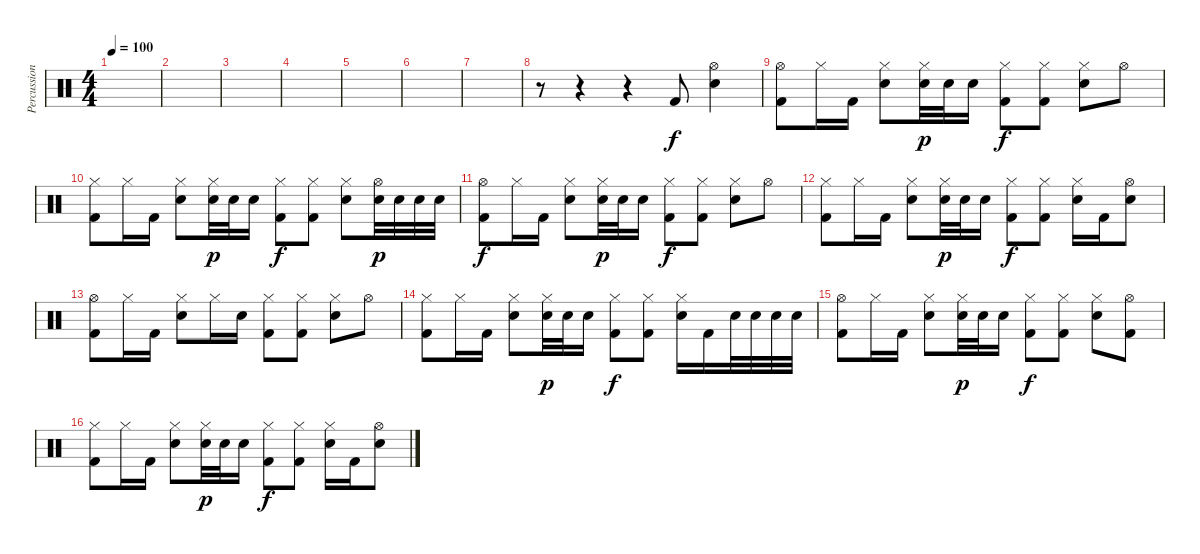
\track ("Percussions" "Percussion") {instrument percussion}
\staff {score}
\articulation defaults
\ts (4 4)
\tempo 100
\clef neutral
\ks c
|
|
|
|
|
|
|
r.8 r.4 r.4 "Kick (hit) 2".8 ("Hi-Hat (open)" "Snare (hit) 2").4 |
("Hi-Hat (open)" "Kick (hit) 2").8 "Hi-Hat (closed)".16 "Kick (hit) 2".16 ("Hi-Hat (closed)" "Snare (hit) 2").8 ("Hi-Hat (closed)" "Snare (hit) 2").32{dy p} "Snare (hit) 2".32 "Snare (hit) 2".16 ("Hi-Hat (closed)" "Kick (hit) 2").8{dy f} ("Hi-Hat (closed)" "Kick (hit) 2").8 ("Hi-Hat (closed)" "Snare (hit) 2").8 "Hi-Hat (open)".8 |
("Hi-Hat (closed)" "Kick (hit) 2").8 "Hi-Hat (closed)".16 "Kick (hit) 2".16 ("Hi-Hat (closed)" "Snare (hit) 2").8 ("Hi-Hat (closed)" "Snare (hit) 2").32{dy p} "Snare (hit) 2".32 "Snare (hit) 2".16 ("Hi-Hat (closed)" "Kick (hit) 2").8{dy f} ("Hi-Hat (closed)" "Kick (hit) 2").8 ("Hi-Hat (closed)" "Snare (hit) 2").8 ("Hi-Hat (open)" "Snare (hit) 2").32{dy p} "Snare (hit) 2".32 "Snare (hit) 2".32 "Snare (hit) 2".32 |
("Hi-Hat (open)" "Kick (hit) 2").8{dy f} "Hi-Hat (closed)".16 "Kick (hit) 2".16 ("Hi-Hat (closed)" "Snare (hit) 2").8 ("Hi-Hat (closed)" "Snare (hit) 2").32{dy p} "Snare (hit) 2".32 "Snare (hit) 2".16 ("Hi-Hat (closed)" "Kick (hit) 2").8{dy f} ("Hi-Hat (closed)" "Kick (hit) 2").8 ("Hi-Hat (closed)" "Snare (hit) 2").8 "Hi-Hat (open)".8 |
("Hi-Hat (closed)" "Kick (hit) 2").8 "Hi-Hat (closed)".16 "Kick (hit) 2".16 ("Hi-Hat (closed)" "Snare (hit) 2").8 ("Hi-Hat (closed)" "Snare (hit) 2").32{dy p} "Snare (hit) 2".32 "Snare (hit) 2".16 ("Hi-Hat (closed)" "Kick (hit) 2").8{dy f} ("Hi-Hat (closed)" "Kick (hit) 2").8 ("Hi-Hat (closed)" "Snare (hit) 2").16 "Kick (hit) 2".16 ("Hi-Hat (open)" "Snare (hit) 2").8 |
("Hi-Hat (open)" "Kick (hit) 2").8{volume 13} "Hi-Hat (closed)".16 "Kick (hit) 2".16 ("Hi-Hat (closed)" "Snare (hit) 2").8 "Hi-Hat (closed)".16 "Snare (hit) 2".16 ("Hi-Hat (closed)" "Kick (hit) 2").8 ("Hi-Hat (closed)" "Kick (hit) 2").8 ("Hi-Hat (closed)" "Snare (hit) 2").8 "Hi-Hat (open)".8 |
("Hi-Hat (closed)" "Kick (hit) 2").8 "Hi-Hat (closed)".16 "Kick (hit) 2".16 ("Hi-Hat (closed)" "Snare (hit) 2").8 ("Hi-Hat (closed)" "Snare (hit) 2").32{dy p} "Snare (hit) 2".32 "Snare (hit) 2".16 ("Hi-Hat (closed)" "Kick (hit) 2").8{dy f} ("Hi-Hat (closed)" "Kick (hit) 2").8 ("Hi-Hat (closed)" "Snare (hit) 2").16 "Kick (hit) 2".16 "Snare (hit) 2".32 "Snare (hit) 2".32 "Snare (hit) 2".32 "Snare (hit) 2".32 |
("Hi-Hat (open)" "Kick (hit) 2").8 "Hi-Hat (closed)".16 "Kick (hit) 2".16 ("Hi-Hat (closed)" "Snare (hit) 2").8 ("Hi-Hat (closed)" "Snare (hit) 2").32{dy p} "Snare (hit) 2".32 "Snare (hit) 2".16 ("Hi-Hat (closed)" "Kick (hit) 2").8{dy f} ("Hi-Hat (closed)" "Kick (hit) 2").8 ("Hi-Hat (closed)" "Snare (hit) 2").8 ("Hi-Hat (open)" "Kick (hit) 2").8 |
("Hi-Hat (closed)" "Kick (hit) 2").8 "Hi-Hat (closed)".16 "Kick (hit) 2".16 ("Hi-Hat (closed)" "Snare (hit) 2").8 ("Hi-Hat (closed)" "Snare (hit) 2").32{dy p} "Snare (hit) 2".32 "Snare (hit) 2".16 ("Hi-Hat (closed)" "Kick (hit) 2").8{dy f} ("Hi-Hat (closed)" "Kick (hit) 2").8 ("Hi-Hat (closed)" "Snare (hit) 2").16 "Kick (hit) 2".16 ("Hi-Hat (open)" "Snare (hit) 2").8
